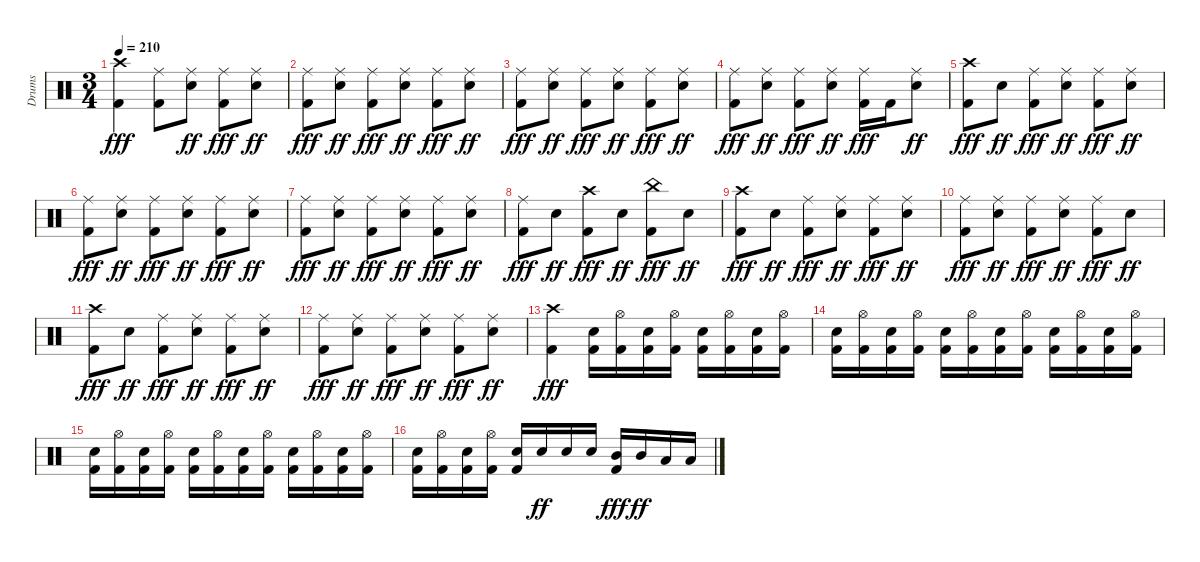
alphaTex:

\track ("Drums" "Drums") {instrument percussion}
\staff {score}
\articulation defaults
\ts (3 4)
\tempo 210
\clef neutral
\ks c
("Crash high (hit)" "Kick (hit) 2").4{dy fff} ("Ride (middle)" "Kick (hit) 2").8 ("Ride (middle)" "Snare (hit) 2").8{dy ff} ("Ride (middle)" "Kick (hit) 2").8{dy fff} ("Ride (middle)" "Snare (hit) 2").8{dy ff} |
("Ride (middle)" "Kick (hit) 2").8{dy fff} ("Ride (middle)" "Snare (hit) 2").8{dy ff} ("Ride (middle)" "Kick (hit) 2").8{dy fff} ("Ride (middle)" "Snare (hit) 2").8{dy ff} ("Ride (middle)" "Kick (hit) 2").8{dy fff} ("Ride (middle)" "Snare (hit) 2").8{dy ff} |
("Ride (middle)" "Kick (hit) 2").8{dy fff} ("Ride (middle)" "Snare (hit) 2").8{dy ff} ("Ride (middle)" "Kick (hit) 2").8{dy fff} ("Ride (middle)" "Snare (hit) 2").8{dy ff} ("Ride (middle)" "Kick (hit) 2").8{dy fff} ("Ride (middle)" "Snare (hit) 2").8{dy ff} |
("Ride (middle)" "Kick (hit) 2").8{dy fff} ("Ride (middle)" "Snare (hit) 2").8{dy ff} ("Ride (middle)" "Kick (hit) 2").8{dy fff} ("Ride (middle)" "Snare (hit) 2").8{dy ff} ("Ride (middle)" "Kick (hit) 2").16{dy fff} "Kick (hit) 2".16 ("Ride (middle)" "Snare (hit) 2").8{dy ff} |
("Crash high (hit)" "Kick (hit) 2").8{dy fff} "Snare (hit) 2".8{dy ff} ("Ride (middle)" "Kick (hit) 2").8{dy fff} ("Ride (middle)" "Snare (hit) 2").8{dy ff} ("Ride (middle)" "Kick (hit) 2").8{dy fff} ("Ride (middle)" "Snare (hit) 2").8{dy ff} |
("Ride (middle)" "Kick (hit) 2").8{dy fff} ("Ride (middle)" "Snare (hit) 2").8{dy ff} ("Ride (middle)" "Kick (hit) 2").8{dy fff} ("Ride (middle)" "Snare (hit) 2").8{dy ff} ("Ride (middle)" "Kick (hit) 2").8{dy fff} ("Ride (middle)" "Snare (hit) 2").8{dy ff} |
("Ride (middle)" "Kick (hit) 2").8{dy fff} ("Ride (middle)" "Snare (hit) 2").8{dy ff} ("Ride (middle)" "Kick (hit) 2").8{dy fff} ("Ride (middle)" "Snare (hit) 2").8{dy ff} ("Ride (middle)" "Kick (hit) 2").8{dy fff} ("Ride (middle)" "Snare (hit) 2").8{dy ff} |
("Ride (middle)" "Kick (hit) 2").8{dy fff} "Snare (hit) 2".8{dy ff} ("Crash high (hit)" "Kick (hit) 2").8{dy fff} "Snare (hit) 2".8{dy ff} ("China (hit)" "Kick (hit) 2").8{dy fff} "Snare (hit) 2".8{dy ff} |
("Crash high (hit)" "Kick (hit) 2").8{dy fff} "Snare (hit) 2".8{dy ff} ("Ride (middle)" "Kick (hit) 2").8{dy fff} ("Ride (middle)" "Snare (hit) 2").8{dy ff} ("Ride (middle)" "Kick (hit) 2").8{dy fff} ("Ride (middle)" "Snare (hit) 2").8{dy ff} |
("Ride (middle)" "Kick (hit) 2").8{dy fff} ("Ride (middle)" "Snare (hit) 2").8{dy ff} ("Ride (middle)" "Kick (hit) 2").8{dy fff} ("Ride (middle)" "Snare (hit) 2").8{dy ff} ("Ride (middle)" "Kick (hit) 2").8{dy fff} "Snare (hit) 2".8{dy ff} |
("Crash high (hit)" "Kick (hit) 2").8{dy fff} "Snare (hit) 2".8{dy ff} ("Ride (middle)" "Kick (hit) 2").8{dy fff} ("Ride (middle)" "Snare (hit) 2").8{dy ff} ("Ride (middle)" "Kick (hit) 2").8{dy fff} ("Ride (middle)" "Snare (hit) 2").8{dy ff} |
("Ride (middle)" "Kick (hit) 2").8{dy fff} ("Ride (middle)" "Snare (hit) 2").8{dy ff} ("Ride (middle)" "Kick (hit) 2").8{dy fff} ("Ride (middle)" "Snare (hit) 2").8{dy ff} ("Ride (middle)" "Kick (hit) 2").8{dy fff} ("Ride (middle)" "Snare (hit) 2").8{dy ff} |
("Crash high (hit)" "Kick (hit) 2").4{dy fff} ("Snare (hit) 2" "Kick (hit) 2").16 ("Hi-Hat (open)" "Kick (hit) 2").16 ("Snare (hit) 2" "Kick (hit) 2").16 ("Hi-Hat (open)" "Kick (hit) 2").16 ("Snare (hit) 2" "Kick (hit) 2").16 ("Hi-Hat (open)" "Kick (hit) 2").16 ("Snare (hit) 2" "Kick (hit) 2").16 ("Hi-Hat (open)" "Kick (hit) 2").16 |
("Snare (hit) 2" "Kick (hit) 2").16 ("Hi-Hat (open)" "Kick (hit) 2").16 ("Snare (hit) 2" "Kick (hit) 2").16 ("Hi-Hat (open)" "Kick (hit) 2").16 ("Snare (hit) 2" "Kick (hit) 2").16 ("Hi-Hat (open)" "Kick (hit) 2").16 ("Snare (hit) 2" "Kick (hit) 2").16 ("Hi-Hat (open)" "Kick (hit) 2").16 ("Snare (hit) 2" "Kick (hit) 2").16 ("Hi-Hat (open)" "Kick (hit) 2").16 ("Snare (hit) 2" "Kick (hit) 2").16 ("Hi-Hat (open)" "Kick (hit) 2").16 |
("Snare (hit) 2" "Kick (hit) 2").16 ("Hi-Hat (open)" "Kick (hit) 2").16 ("Snare (hit) 2" "Kick (hit) 2").16 ("Hi-Hat (open)" "Kick (hit) 2").16 ("Snare (hit) 2" "Kick (hit) 2").16 ("Hi-Hat (open)" "Kick (hit) 2").16 ("Snare (hit) 2" "Kick (hit) 2").16 ("Hi-Hat (open)" "Kick (hit) 2").16 ("Snare (hit) 2" "Kick (hit) 2").16 ("Hi-Hat (open)" "Kick (hit) 2").16 ("Snare (hit) 2" "Kick (hit) 2").16 ("Hi-Hat (open)" "Kick (hit) 2").16 |
("Snare (hit) 2" "Kick (hit) 2").16 ("Hi-Hat (open)" "Kick (hit) 2").16 ("Snare (hit) 2" "Kick (hit) 2").16 ("Hi-Hat (open)" "Kick (hit) 2").16 ("Snare (hit) 2" "Kick (hit) 2").16 "Snare (hit) 2".16{dy ff} "Snare (hit) 2".16 "Snare (hit) 2".16 ("Mid Tom (hit)" "Kick (hit) 2").16{dy fff} "Mid Tom (hit)".16{dy ff} "Low Tom (hit)".16 "Low Tom (hit)".16
